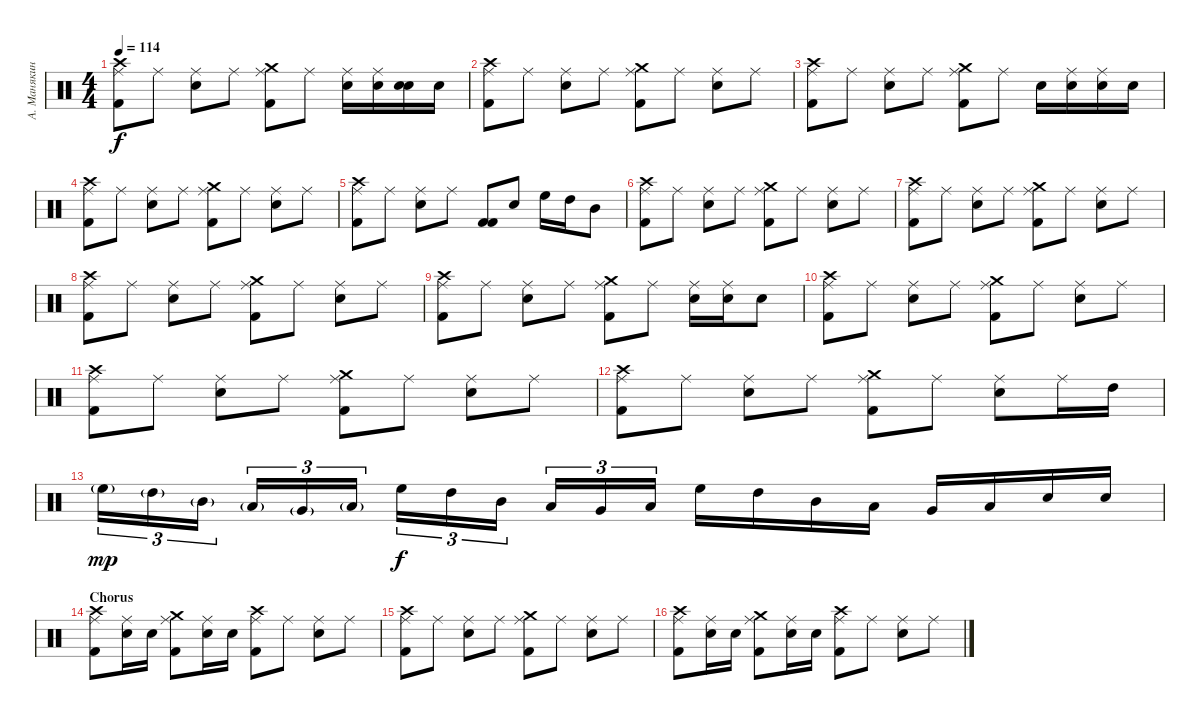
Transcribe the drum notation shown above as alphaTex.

\track ("А. Манякин" "А. Манякин") {instrument percussion}
\staff {score}
\articulation defaults
\ts (4 4)
\tempo 114
\clef neutral
\ks c
("Kick (hit) 2" "Crash high (hit)" "Ride (middle)").8{dy f} "Ride (middle)".8 ("Electric Snare (hit)" "Ride (middle)").8 "Ride (middle)".8 ("Kick (hit) 2" "Crash medium (hit)" "Ride (middle)").8 "Ride (middle)".8 ("Electric Snare (hit)" "Ride (middle)").16 ("Electric Snare (hit)" "Ride (middle)").16 ("Snare (hit)" "Electric Snare (hit)").16 "Electric Snare (hit)".16 |
("Kick (hit) 2" "Crash high (hit)" "Ride (middle)").8 "Ride (middle)".8 ("Electric Snare (hit)" "Ride (middle)").8 "Ride (middle)".8 ("Kick (hit) 2" "Crash medium (hit)" "Ride (middle)").8 "Ride (middle)".8 ("Electric Snare (hit)" "Ride (middle)").8 "Ride (middle)".8 |
("Kick (hit) 2" "Crash high (hit)" "Ride (middle)").8 "Ride (middle)".8 ("Electric Snare (hit)" "Ride (middle)").8 "Ride (middle)".8 ("Kick (hit) 2" "Crash medium (hit)" "Ride (middle)").8 "Ride (middle)".8 "Electric Snare (hit)".16 ("Electric Snare (hit)" "Ride (middle)").16 ("Electric Snare (hit)" "Ride (middle)").16 "Electric Snare (hit)".16 |
("Kick (hit) 2" "Crash high (hit)" "Ride (middle)").8 "Ride (middle)".8 ("Electric Snare (hit)" "Ride (middle)").8 "Ride (middle)".8 ("Kick (hit) 2" "Crash medium (hit)" "Ride (middle)").8 "Ride (middle)".8 ("Electric Snare (hit)" "Ride (middle)").8 "Ride (middle)".8 |
("Kick (hit) 2" "Crash high (hit)" "Ride (middle)").8 "Ride (middle)".8 ("Electric Snare (hit)" "Ride (middle)").8 "Ride (middle)".8 ("Kick (hit) 2" "Kick (hit) 2").8 "Electric Snare (hit)".8 "High Floor Tom (hit)".16 "High Tom (hit)".16 "Mid Tom (hit)".8 |
("Kick (hit) 2" "Crash high (hit)" "Ride (middle)").8 "Ride (middle)".8 ("Electric Snare (hit)" "Ride (middle)").8 "Ride (middle)".8 ("Kick (hit) 2" "Crash medium (hit)" "Ride (middle)").8 "Ride (middle)".8 ("Electric Snare (hit)" "Ride (middle)").8 "Ride (middle)".8 |
("Kick (hit) 2" "Crash high (hit)" "Ride (middle)").8 "Ride (middle)".8 ("Electric Snare (hit)" "Ride (middle)").8 "Ride (middle)".8 ("Kick (hit) 2" "Crash medium (hit)" "Ride (middle)").8 "Ride (middle)".8 ("Electric Snare (hit)" "Ride (middle)").8 "Ride (middle)".8 |
("Kick (hit) 2" "Crash high (hit)" "Ride (middle)").8 "Ride (middle)".8 ("Electric Snare (hit)" "Ride (middle)").8 "Ride (middle)".8 ("Kick (hit) 2" "Crash medium (hit)" "Ride (middle)").8 "Ride (middle)".8 ("Electric Snare (hit)" "Ride (middle)").8 "Ride (middle)".8 |
("Kick (hit) 2" "Crash high (hit)" "Ride (middle)").8 "Ride (middle)".8 ("Electric Snare (hit)" "Ride (middle)").8 "Ride (middle)".8 ("Kick (hit) 2" "Crash medium (hit)" "Ride (middle)").8 "Ride (middle)".8 ("Electric Snare (hit)" "Ride (middle)").16 ("Electric Snare (hit)" "Ride (middle)").16 "Electric Snare (hit)".8 |
("Kick (hit) 2" "Crash high (hit)" "Ride (middle)").8 "Ride (middle)".8 ("Electric Snare (hit)" "Ride (middle)").8 "Ride (middle)".8 ("Kick (hit) 2" "Crash medium (hit)" "Ride (middle)").8 "Ride (middle)".8 ("Electric Snare (hit)" "Ride (middle)").8 "Ride (middle)".8 |
("Kick (hit) 2" "Crash high (hit)" "Ride (middle)").8 "Ride (middle)".8 ("Electric Snare (hit)" "Ride (middle)").8 "Ride (middle)".8 ("Kick (hit) 2" "Crash medium (hit)" "Ride (middle)").8 "Ride (middle)".8 ("Electric Snare (hit)" "Ride (middle)").8 "Ride (middle)".8 |
("Kick (hit) 2" "Crash high (hit)" "Ride (middle)").8 "Ride (middle)".8 ("Electric Snare (hit)" "Ride (middle)").8 "Ride (middle)".8 ("Kick (hit) 2" "Crash medium (hit)" "Ride (middle)").8 "Ride (middle)".8 ("Electric Snare (hit)" "Ride (middle)").8 "Ride (middle)".16 "High Tom (hit)".16 |
"High Floor Tom (hit)"{g}.16{tu (3 2) dy mp} "High Tom (hit)"{g}.16{tu (3 2)} "Mid Tom (hit)"{g}.16{tu (3 2)} "Low Tom (hit)"{g}.16{tu (3 2)} "Very Low Tom (hit)"{g}.16{tu (3 2)} "Low Floor Tom (hit)"{g}.16{tu (3 2)} "High Floor Tom (hit)".16{tu (3 2) dy f} "High Tom (hit)".16{tu (3 2)} "Mid Tom (hit)".16{tu (3 2)} "Low Tom (hit)".16{tu (3 2)} "Very Low Tom (hit)".16{tu (3 2)} "Low Floor Tom (hit)".16{tu (3 2)} "High Floor Tom (hit)".16 "High Tom (hit)".16 "Mid Tom (hit)".16 "Low Tom (hit)".16 "Very Low Tom (hit)".16 "Low Floor Tom (hit)".16 "Electric Snare (hit)".16 "Electric Snare (hit)".16 |
\section ("" "Chorus")
("Kick (hit) 2" "Crash high (hit)" "Ride (middle)").8 ("Electric Snare (hit)" "Ride (middle)").16 "Electric Snare (hit)".16 ("Kick (hit) 2" "Crash medium (hit)" "Ride (middle)").8 ("Electric Snare (hit)" "Ride (middle)").16 "Electric Snare (hit)".16 ("Kick (hit) 2" "Crash high (hit)" "Ride (middle)").8 "Ride (middle)".8 ("Electric Snare (hit)" "Ride (middle)").8 "Ride (middle)".8 |
("Kick (hit) 2" "Crash high (hit)" "Ride (middle)").8 "Ride (middle)".8 ("Electric Snare (hit)" "Ride (middle)").8 "Ride (middle)".8 ("Kick (hit) 2" "Crash medium (hit)" "Ride (middle)").8 "Ride (middle)".8 ("Electric Snare (hit)" "Ride (middle)").8 "Ride (middle)".8 |
("Kick (hit) 2" "Crash high (hit)" "Ride (middle)").8 ("Electric Snare (hit)" "Ride (middle)").16 "Electric Snare (hit)".16 ("Kick (hit) 2" "Crash medium (hit)" "Ride (middle)").8 ("Electric Snare (hit)" "Ride (middle)").16 "Electric Snare (hit)".16 ("Kick (hit) 2" "Crash high (hit)" "Ride (middle)").8 "Ride (middle)".8 ("Electric Snare (hit)" "Ride (middle)").8 "Ride (middle)".8
